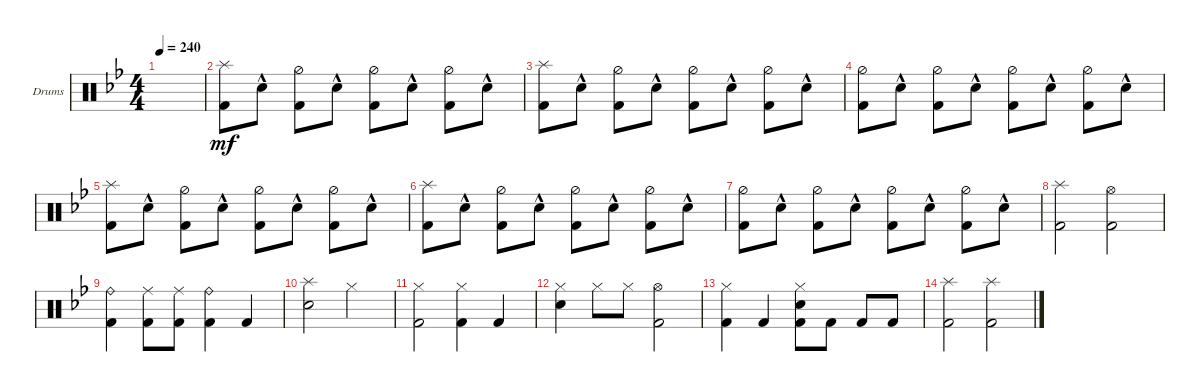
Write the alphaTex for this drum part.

\defaultSystemsLayout 4
\bracketExtendMode groupsimilarinstruments
\firstSystemTrackNameOrientation horizontal
\otherSystemsTrackNameOrientation horizontal
\track ("Drumkit" "Drums") {instrument percussion}
\staff {score}
\articulation defaults
\ts (4 4)
\tempo 240
\clef neutral
\ks bb
|
("Splash (hit)"{acc forcenatural} "Kick (hit) 2"{acc forcenatural}).8{dy mf beam Down} "Snare (hit) 2"{hac acc forcenatural}.8{beam Down} ("Hi-Hat (half)"{acc forcenatural} "Kick (hit) 2"{acc forcenatural}).8{beam Down} "Snare (hit) 2"{hac acc forcenatural}.8{beam Down} ("Hi-Hat (half)"{acc forcenatural} "Kick (hit) 2"{acc forcenatural}).8{beam Down} "Snare (hit) 2"{hac acc forcenatural}.8{beam Down} ("Kick (hit) 2"{acc forcenatural} "Hi-Hat (half)"{acc forcenatural}).8{beam Down} "Snare (hit) 2"{hac acc forcenatural}.8{beam Down} |
("Splash (hit)"{acc forcenatural} "Kick (hit) 2"{acc forcenatural}).8{beam Down} "Snare (hit) 2"{hac acc forcenatural}.8{beam Down} ("Hi-Hat (half)"{acc forcenatural} "Kick (hit) 2"{acc forcenatural}).8{beam Down} "Snare (hit) 2"{hac acc forcenatural}.8{beam Down} ("Hi-Hat (half)"{acc forcenatural} "Kick (hit) 2"{acc forcenatural}).8{beam Down} "Snare (hit) 2"{hac acc forcenatural}.8{beam Down} ("Kick (hit) 2"{acc forcenatural} "Hi-Hat (half)"{acc forcenatural}).8{beam Down} "Snare (hit) 2"{hac acc forcenatural}.8{beam Down} |
("Kick (hit) 2"{acc forcenatural} "Hi-Hat (half)"{acc forcenatural}).8{beam Down} "Snare (hit) 2"{hac acc forcenatural}.8{beam Down} ("Hi-Hat (half)"{acc forcenatural} "Kick (hit) 2"{acc forcenatural}).8{beam Down} "Snare (hit) 2"{hac acc forcenatural}.8{beam Down} ("Hi-Hat (half)"{acc forcenatural} "Kick (hit) 2"{acc forcenatural}).8{beam Down} "Snare (hit) 2"{hac acc forcenatural}.8{beam Down} ("Kick (hit) 2"{acc forcenatural} "Hi-Hat (half)"{acc forcenatural}).8{beam Down} "Snare (hit) 2"{hac acc forcenatural}.8{beam Down} |
("Splash (hit)"{acc forcenatural} "Kick (hit) 2"{acc forcenatural}).8{beam Down} "Snare (hit) 2"{hac acc forcenatural}.8{beam Down} ("Hi-Hat (half)"{acc forcenatural} "Kick (hit) 2"{acc forcenatural}).8{beam Down} "Snare (hit) 2"{hac acc forcenatural}.8{beam Down} ("Hi-Hat (half)"{acc forcenatural} "Kick (hit) 2"{acc forcenatural}).8{beam Down} "Snare (hit) 2"{hac acc forcenatural}.8{beam Down} ("Kick (hit) 2"{acc forcenatural} "Hi-Hat (half)"{acc forcenatural}).8{beam Down} "Snare (hit) 2"{hac acc forcenatural}.8{beam Down} |
("Splash (hit)"{acc forcenatural} "Kick (hit) 2"{acc forcenatural}).8{beam Down} "Snare (hit) 2"{hac acc forcenatural}.8{beam Down} ("Hi-Hat (half)"{acc forcenatural} "Kick (hit) 2"{acc forcenatural}).8{beam Down} "Snare (hit) 2"{hac acc forcenatural}.8{beam Down} ("Hi-Hat (half)"{acc forcenatural} "Kick (hit) 2"{acc forcenatural}).8{beam Down} "Snare (hit) 2"{hac acc forcenatural}.8{beam Down} ("Kick (hit) 2"{acc forcenatural} "Hi-Hat (half)"{acc forcenatural}).8{beam Down} "Snare (hit) 2"{hac acc forcenatural}.8{beam Down} |
("Kick (hit) 2"{acc forcenatural} "Hi-Hat (half)"{acc forcenatural}).8{beam Down} "Snare (hit) 2"{hac acc forcenatural}.8{beam Down} ("Hi-Hat (half)"{acc forcenatural} "Kick (hit) 2"{acc forcenatural}).8{beam Down} "Snare (hit) 2"{hac acc forcenatural}.8{beam Down} ("Hi-Hat (half)"{acc forcenatural} "Kick (hit) 2"{acc forcenatural}).8{beam Down} "Snare (hit) 2"{hac acc forcenatural}.8{beam Down} ("Kick (hit) 2"{acc forcenatural} "Hi-Hat (half)"{acc forcenatural}).8{beam Down} "Snare (hit) 2"{hac acc forcenatural}.8{beam Down} |
("Splash (hit)"{acc forcenatural} "Kick (hit) 2"{acc forcenatural}).2{beam Down} ("Hi-Hat (open)"{acc forcenatural} "Kick (hit) 2"{acc forcenatural}).2{beam Down} |
("Ride (bell)"{acc forcenatural} "Kick (hit) 2"{acc forcenatural}).4{beam Down} ("Ride (middle)"{acc forcenatural} "Kick (hit) 2"{acc forcenatural}).8{beam Down} ("Ride (middle)"{acc forcenatural} "Kick (hit) 2"{acc forcenatural}).8{beam Down} ("Ride (bell)"{acc forcenatural} "Kick (hit) 2"{acc forcenatural}).4{beam Down} "Kick (hit) 2"{acc forcenatural}.4{beam Up} |
("Snare (hit) 2"{acc forcenatural} "Splash (hit)"{acc forcenatural}).2{beam Down} "Hi-Hat (closed)"{acc forcenatural}.2{beam Down} |
("Hi-Hat (closed)"{acc forcenatural} "Kick (hit) 2"{acc forcenatural}).2{beam Down} ("Hi-Hat (closed)"{acc forcenatural} "Kick (hit) 2"{acc forcenatural}).4{beam Down} "Kick (hit) 2"{acc forcenatural}.4{beam Up} |
("Snare (hit) 2"{acc forcenatural} "Hi-Hat (closed)"{acc forcenatural}).4{beam Down} "Hi-Hat (closed)"{acc forcenatural}.8{beam Down} "Hi-Hat (closed)"{acc forcenatural}.8{beam Down} ("Hi-Hat (open)"{acc forcenatural} "Kick (hit) 2"{acc forcenatural}).2{beam Down} |
("Kick (hit) 2"{acc forcenatural} "Hi-Hat (closed)"{acc forcenatural}).4{beam Down} "Kick (hit) 2"{acc forcenatural}.4{beam Up} ("Kick (hit) 2"{acc forcenatural} "Snare (hit) 2"{acc forcenatural} "Hi-Hat (closed)"{acc forcenatural}).8{beam Down} "Kick (hit) 2"{acc forcenatural}.8{beam Down} "Kick (hit) 2"{acc forcenatural}.8{beam Up} "Kick (hit) 2"{acc forcenatural}.8{beam Up} |
("Splash (hit)"{acc forcenatural} "Kick (hit) 2"{acc forcenatural}).2{beam Down} ("Splash (hit)"{acc forcenatural} "Kick (hit) 2"{acc forcenatural}).2{beam Down}
